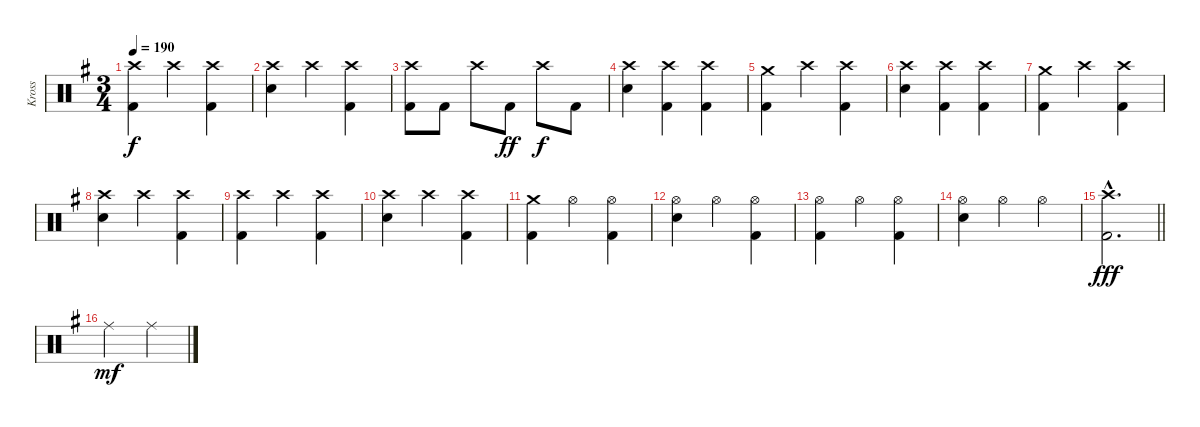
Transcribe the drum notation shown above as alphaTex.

\track ("Kross" "Kross") {instrument percussion}
\staff {score}
\articulation defaults
\ts (3 4)
\tempo 190
\clef neutral
\ks g
("Crash high (hit)" "Kick (hit) 2").4{dy f} "Crash high (hit)".4 ("Crash high (hit)" "Kick (hit) 2").4 |
("Crash high (hit)" "Snare (hit) 2").4 "Crash high (hit)".4 ("Crash high (hit)" "Kick (hit) 2").4 |
("Crash high (hit)" "Kick (hit) 2").8 "Kick (hit) 2".8 "Crash high (hit)".8 "Kick (hit) 2".8{dy ff} "Crash high (hit)".8{dy f} "Kick (hit) 2".8 |
("Crash high (hit)" "Snare (hit) 2").4 ("Crash high (hit)" "Kick (hit) 2").4 ("Crash high (hit)" "Kick (hit) 2").4 |
("Crash medium (hit)" "Kick (hit) 2").4 "Crash high (hit)".4 ("Crash high (hit)" "Kick (hit) 2").4 |
("Crash high (hit)" "Snare (hit) 2").4 ("Crash high (hit)" "Kick (hit) 2").4 ("Crash high (hit)" "Kick (hit) 2").4 |
("Crash medium (hit)" "Kick (hit) 2").4 "Crash high (hit)".4 ("Crash high (hit)" "Kick (hit) 2").4 |
("Crash high (hit)" "Snare (hit) 2").4 "Crash high (hit)".4 ("Crash high (hit)" "Kick (hit) 2").4 |
("Crash high (hit)" "Kick (hit) 2").4 "Crash high (hit)".4 ("Crash high (hit)" "Kick (hit) 2").4 |
("Crash high (hit)" "Snare (hit) 2").4 "Crash high (hit)".4 ("Crash high (hit)" "Kick (hit) 2").4 |
("Crash medium (hit)" "Kick (hit) 2").4 "Hi-Hat (open)".4 ("Hi-Hat (open)" "Kick (hit) 2").4 |
("Hi-Hat (open)" "Snare (hit) 2").4 "Hi-Hat (open)".4 ("Hi-Hat (open)" "Kick (hit) 2").4 |
("Hi-Hat (open)" "Kick (hit) 2").4 "Hi-Hat (open)".4 ("Hi-Hat (open)" "Kick (hit) 2").4 |
("Hi-Hat (open)" "Snare (hit) 2").4 "Hi-Hat (open)".4 "Hi-Hat (open)".4 |
\barLineRight lightlight
("Crash high (hit)"{hac} "Kick (hit) 2"{hac}).2{d dy fff} |
"Ride (middle)".2{dy mf} "Ride (middle)".4
